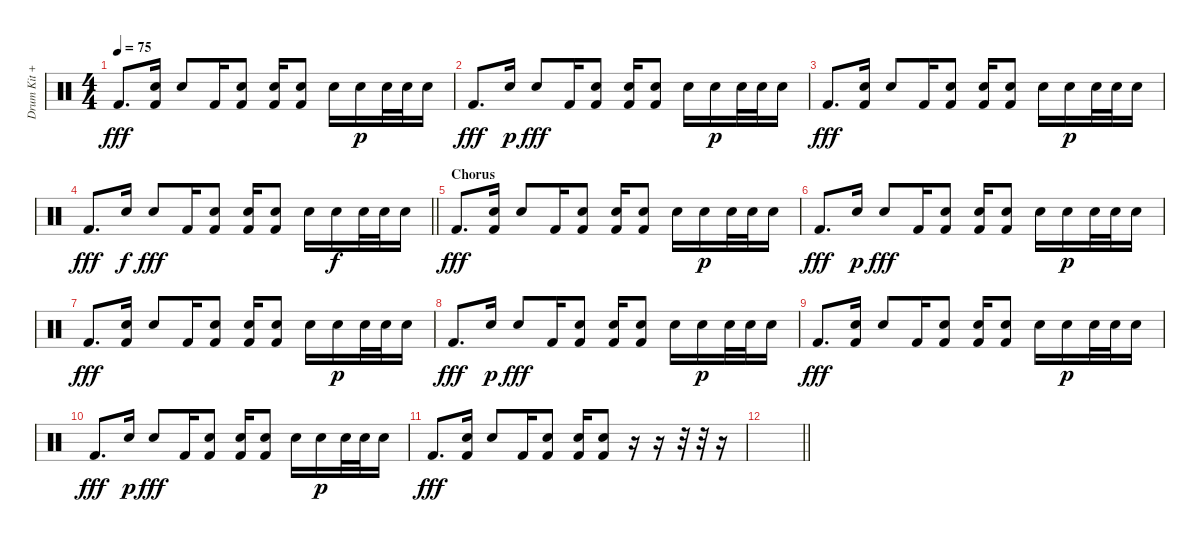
\track ("Drum Kit + Claps" "Drum Kit +") {instrument percussion}
\staff {score}
\articulation defaults
\ts (4 4)
\tempo 75
\clef neutral
\ks c "Kick (hit) 2".8{d dy fff}
("Snare (hit) 2" "Kick (hit) 2").16 "Hand Clap (hit)".8 "Kick (hit) 2".16 ("Snare (hit) 2" "Kick (hit) 2").8 ("Snare (hit) 2" "Kick (hit) 2").16 ("Snare (hit) 2" "Kick (hit) 2").8 "Hand Clap (hit)".16 "Snare (hit) 2".16{dy p} "Snare (hit) 2".32 "Snare (hit) 2".32 "Snare (hit) 2".16 |
"Kick (hit) 2".8{d dy fff} "Snare (hit) 2".16{dy p} "Hand Clap (hit)".8{dy fff} "Kick (hit) 2".16 ("Snare (hit) 2" "Kick (hit) 2").8 ("Snare (hit) 2" "Kick (hit) 2").16 ("Snare (hit) 2" "Kick (hit) 2").8 "Hand Clap (hit)".16 "Snare (hit) 2".16{dy p} "Snare (hit) 2".32 "Snare (hit) 2".32 "Snare (hit) 2".16 |
"Kick (hit) 2".8{d dy fff} ("Snare (hit) 2" "Kick (hit) 2").16 "Hand Clap (hit)".8 "Kick (hit) 2".16 ("Snare (hit) 2" "Kick (hit) 2").8 ("Snare (hit) 2" "Kick (hit) 2").16 ("Snare (hit) 2" "Kick (hit) 2").8 "Hand Clap (hit)".16 "Snare (hit) 2".16{dy p} "Snare (hit) 2".32 "Snare (hit) 2".32 "Snare (hit) 2".16 |
\barLineRight lightlight "Kick (hit) 2".8{d dy fff} "Snare (hit) 2".16{dy f} "Hand Clap (hit)".8{dy fff} "Kick (hit) 2".16
("Snare (hit) 2" "Kick (hit) 2").8 ("Snare (hit) 2" "Kick (hit) 2").16 ("Snare (hit) 2" "Kick (hit) 2").8 "Hand Clap (hit)".16 "Snare (hit) 2".16{dy f} "Snare (hit) 2".32 "Snare (hit) 2".32 "Snare (hit) 2".16 |
\section ("" "Chorus")
"Kick (hit) 2".8{d dy fff} ("Snare (hit) 2" "Kick (hit) 2").16 "Hand Clap (hit)".8 "Kick (hit) 2".16 ("Snare (hit) 2" "Kick (hit) 2").8 ("Snare (hit) 2" "Kick (hit) 2").16 ("Snare (hit) 2" "Kick (hit) 2").8 "Hand Clap (hit)".16 "Snare (hit) 2".16{dy p} "Snare (hit) 2".32 "Snare (hit) 2".32 "Snare (hit) 2".16 |
"Kick (hit) 2".8{d dy fff} "Snare (hit) 2".16{dy p} "Hand Clap (hit)".8{dy fff} "Kick (hit) 2".16 ("Snare (hit) 2" "Kick (hit) 2").8 ("Snare (hit) 2" "Kick (hit) 2").16 ("Snare (hit) 2" "Kick (hit) 2").8 "Hand Clap (hit)".16 "Snare (hit) 2".16{dy p} "Snare (hit) 2".32 "Snare (hit) 2".32 "Snare (hit) 2".16 |
"Kick (hit) 2".8{d dy fff} ("Snare (hit) 2" "Kick (hit) 2").16 "Hand Clap (hit)".8 "Kick (hit) 2".16 ("Snare (hit) 2" "Kick (hit) 2").8 ("Snare (hit) 2" "Kick (hit) 2").16 ("Snare (hit) 2" "Kick (hit) 2").8 "Hand Clap (hit)".16 "Snare (hit) 2".16{dy p} "Snare (hit) 2".32 "Snare (hit) 2".32 "Snare (hit) 2".16 |
"Kick (hit) 2".8{d dy fff} "Snare (hit) 2".16{dy p} "Hand Clap (hit)".8{dy fff} "Kick (hit) 2".16 ("Snare (hit) 2" "Kick (hit) 2").8 ("Snare (hit) 2" "Kick (hit) 2").16 ("Snare (hit) 2" "Kick (hit) 2").8 "Hand Clap (hit)".16 "Snare (hit) 2".16{dy p} "Snare (hit) 2".32 "Snare (hit) 2".32 "Snare (hit) 2".16 |
"Kick (hit) 2".8{d dy fff} ("Snare (hit) 2" "Kick (hit) 2").16 "Hand Clap (hit)".8 "Kick (hit) 2".16 ("Snare (hit) 2" "Kick (hit) 2").8 ("Snare (hit) 2" "Kick (hit) 2").16 ("Snare (hit) 2" "Kick (hit) 2").8 "Hand Clap (hit)".16 "Snare (hit) 2".16{dy p} "Snare (hit) 2".32 "Snare (hit) 2".32 "Snare (hit) 2".16 |
"Kick (hit) 2".8{d dy fff} "Snare (hit) 2".16{dy p} "Hand Clap (hit)".8{dy fff} "Kick (hit) 2".16 ("Snare (hit) 2" "Kick (hit) 2").8 ("Snare (hit) 2" "Kick (hit) 2").16 ("Snare (hit) 2" "Kick (hit) 2").8 "Hand Clap (hit)".16 "Snare (hit) 2".16{dy p} "Snare (hit) 2".32 "Snare (hit) 2".32 "Snare (hit) 2".16 |
"Kick (hit) 2".8{d dy fff} ("Snare (hit) 2" "Kick (hit) 2").16 "Hand Clap (hit)".8 "Kick (hit) 2".16 ("Snare (hit) 2" "Kick (hit) 2").8 ("Snare (hit) 2" "Kick (hit) 2").16 ("Snare (hit) 2" "Kick (hit) 2").8 r.16 r.16 r.32 r.32 r.16 |
\barLineRight lightlight
